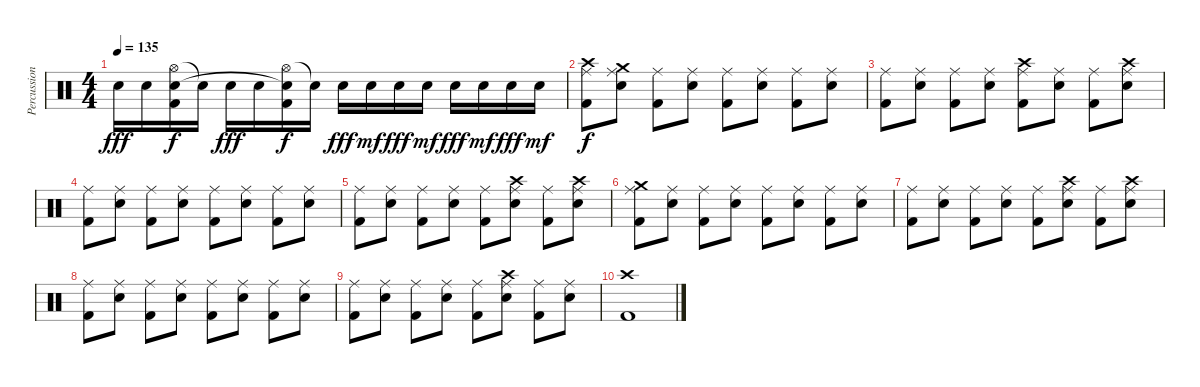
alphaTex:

\track ("Percussion" "Percussion") {instrument percussion}
\staff {score}
\articulation defaults
\ts (4 4)
\tempo 135
\clef neutral
\ks c "Electric Snare (hit)".16{dy fff} "Electric Snare (hit)".16
("Hi-Hat (open)" "Snare (hit)"{t} "Kick (hit) 2").16{dy f} "Electric Snare (hit)"{t}.16 "Electric Snare (hit)".16{dy fff} "Electric Snare (hit)".16 ("Hi-Hat (open)" "Snare (hit)"{t} "Kick (hit) 2").16{dy f} "Electric Snare (hit)"{t}.16 "Electric Snare (hit)".16{dy fff} "Electric Snare (hit)".16{dy mf} "Electric Snare (hit)".16{dy fff} "Electric Snare (hit)".16{dy mf} "Electric Snare (hit)".16{dy fff} "Electric Snare (hit)".16{dy mf} "Electric Snare (hit)".16{dy fff} "Electric Snare (hit)".16{dy mf} |
("Crash high (hit)" "Ride (middle)" "Kick (hit) 2").8{dy f} ("Crash medium (hit)" "Ride (middle)" "Electric Snare (hit)").8 ("Ride (middle)" "Kick (hit) 2").8 ("Ride (middle)" "Electric Snare (hit)").8 ("Ride (middle)" "Kick (hit) 2").8 ("Ride (middle)" "Electric Snare (hit)").8 ("Ride (middle)" "Kick (hit) 2").8 ("Ride (middle)" "Electric Snare (hit)").8 |
("Ride (middle)" "Kick (hit) 2").8 ("Ride (middle)" "Electric Snare (hit)").8 ("Ride (middle)" "Kick (hit) 2").8 ("Ride (middle)" "Electric Snare (hit)").8 ("Crash high (hit)" "Ride (middle)" "Kick (hit) 2").8 ("Ride (middle)" "Electric Snare (hit)").8 ("Ride (middle)" "Kick (hit) 2").8 ("Crash high (hit)" "Ride (middle)" "Electric Snare (hit)").8 |
("Ride (middle)" "Kick (hit) 2").8 ("Ride (middle)" "Electric Snare (hit)").8 ("Ride (middle)" "Kick (hit) 2").8 ("Ride (middle)" "Electric Snare (hit)").8 ("Ride (middle)" "Kick (hit) 2").8 ("Ride (middle)" "Electric Snare (hit)").8 ("Ride (middle)" "Kick (hit) 2").8 ("Ride (middle)" "Electric Snare (hit)").8 |
("Ride (middle)" "Kick (hit) 2").8 ("Ride (middle)" "Electric Snare (hit)").8 ("Ride (middle)" "Kick (hit) 2").8 ("Ride (middle)" "Electric Snare (hit)").8 ("Ride (middle)" "Kick (hit) 2").8 ("Crash high (hit)" "Ride (middle)" "Electric Snare (hit)").8 ("Ride (middle)" "Kick (hit) 2").8 ("Crash high (hit)" "Ride (middle)" "Electric Snare (hit)").8 |
("Crash medium (hit)" "Ride (middle)" "Kick (hit) 2").8 ("Ride (middle)" "Electric Snare (hit)").8 ("Ride (middle)" "Kick (hit) 2").8 ("Ride (middle)" "Electric Snare (hit)").8 ("Ride (middle)" "Kick (hit) 2").8 ("Ride (middle)" "Electric Snare (hit)").8 ("Ride (middle)" "Kick (hit) 2").8 ("Ride (middle)" "Electric Snare (hit)").8 |
("Ride (middle)" "Kick (hit) 2").8 ("Ride (middle)" "Electric Snare (hit)").8 ("Ride (middle)" "Kick (hit) 2").8 ("Ride (middle)" "Electric Snare (hit)").8 ("Ride (middle)" "Kick (hit) 2").8 ("Crash high (hit)" "Ride (middle)" "Electric Snare (hit)").8 ("Ride (middle)" "Kick (hit) 2").8 ("Crash high (hit)" "Ride (middle)" "Electric Snare (hit)").8 |
("Ride (middle)" "Kick (hit) 2").8 ("Ride (middle)" "Electric Snare (hit)").8 ("Ride (middle)" "Kick (hit) 2").8 ("Ride (middle)" "Electric Snare (hit)").8 ("Ride (middle)" "Kick (hit) 2").8 ("Ride (middle)" "Electric Snare (hit)").8 ("Ride (middle)" "Kick (hit) 2").8 ("Ride (middle)" "Electric Snare (hit)").8 |
("Ride (middle)" "Kick (hit) 2").8 ("Ride (middle)" "Electric Snare (hit)").8 ("Ride (middle)" "Kick (hit) 2").8 ("Ride (middle)" "Electric Snare (hit)").8 ("Ride (middle)" "Kick (hit) 2").8 ("Crash high (hit)" "Ride (middle)" "Electric Snare (hit)").8 ("Ride (middle)" "Kick (hit) 2").8 ("Ride (middle)" "Electric Snare (hit)").8 |
("Crash high (hit)" "Kick (hit) 2").1
